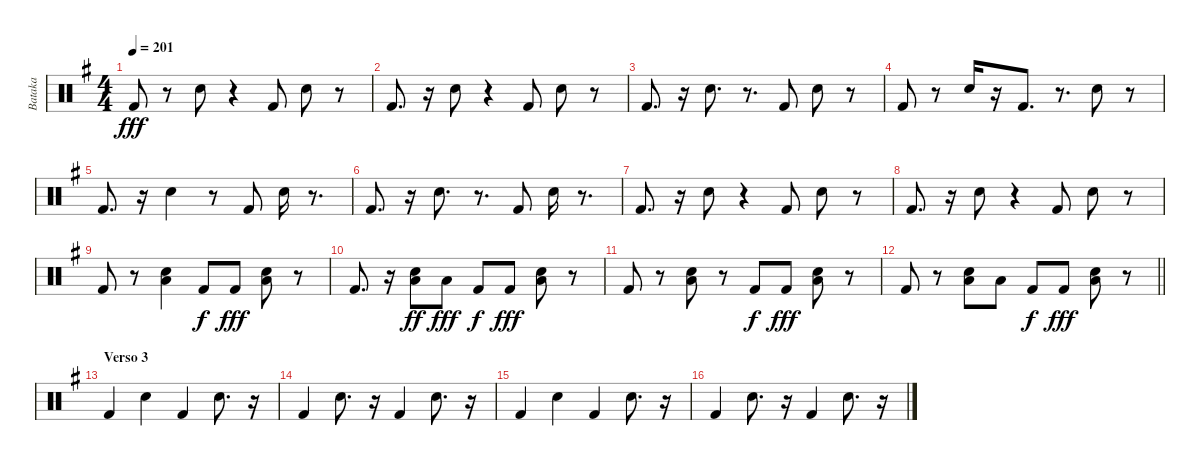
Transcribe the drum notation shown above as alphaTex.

\track ("Bataka" "Bataka") {instrument percussion}
\staff {score}
\articulation defaults
\ts (4 4)
\tempo 201
\clef neutral
\ks g "Kick (hit) 2".8{dy fff}
r.8 "Electric Snare (hit)".8 r.4 "Kick (hit) 2".8 "Electric Snare (hit)".8 r.8 |
"Kick (hit) 2".8{d} r.16 "Electric Snare (hit)".8 r.4 "Kick (hit) 2".8 "Electric Snare (hit)".8 r.8 |
"Kick (hit) 2".8{d} r.16 "Electric Snare (hit)".8{d} r.8{d} "Kick (hit) 2".8 "Electric Snare (hit)".8 r.8 |
"Kick (hit) 2".8 r.8 "Electric Snare (hit)".16 r.16 "Kick (hit) 2".8{d} r.8{d} "Electric Snare (hit)".8 r.8 |
"Kick (hit) 2".8{d} r.16 "Electric Snare (hit)".4 r.8 "Kick (hit) 2".8 "Electric Snare (hit)".16 r.8{d} |
"Kick (hit) 2".8{d} r.16 "Electric Snare (hit)".8{d} r.8{d} "Kick (hit) 2".8 "Electric Snare (hit)".16 r.8{d} |
"Kick (hit) 2".8{d} r.16 "Electric Snare (hit)".8 r.4 "Kick (hit) 2".8 "Electric Snare (hit)".8 r.8 |
"Kick (hit) 2".8{d} r.16 "Electric Snare (hit)".8 r.4 "Kick (hit) 2".8 "Electric Snare (hit)".8 r.8 |
"Kick (hit) 2".8 r.8 ("Electric Snare (hit)" "Low Floor Tom (hit)").4 "Kick (hit) 2".8{dy f} "Kick (hit) 2".8{dy fff} ("Electric Snare (hit)" "Low Floor Tom (hit)").8 r.8 |
"Kick (hit) 2".8{d} r.16 ("Electric Snare (hit)" "Low Floor Tom (hit)").8{dy ff} "Low Floor Tom (hit)".8{dy fff} "Kick (hit) 2".8{dy f} "Kick (hit) 2".8{dy fff} ("Electric Snare (hit)" "Low Floor Tom (hit)").8 r.8 |
"Kick (hit) 2".8 r.8 ("Low Floor Tom (hit)" "Electric Snare (hit)").8 r.8 "Kick (hit) 2".8{dy f} "Kick (hit) 2".8{dy fff} ("Electric Snare (hit)" "Low Floor Tom (hit)").8 r.8 |
\barLineRight lightlight "Kick (hit) 2".8
r.8 ("Electric Snare (hit)" "Low Floor Tom (hit)").8 "Low Floor Tom (hit)".8 "Kick (hit) 2".8{dy f} "Kick (hit) 2".8{dy fff} ("Low Floor Tom (hit)" "Electric Snare (hit)").8 r.8 |
\section ("" "Verso 3")
"Kick (hit) 2".4 "Electric Snare (hit)".4 "Kick (hit) 2".4 "Electric Snare (hit)".8{d} r.16 |
"Kick (hit) 2".4 "Electric Snare (hit)".8{d} r.16 "Kick (hit) 2".4 "Electric Snare (hit)".8{d} r.16 |
"Kick (hit) 2".4 "Electric Snare (hit)".4 "Kick (hit) 2".4 "Electric Snare (hit)".8{d} r.16 |
"Kick (hit) 2".4 "Electric Snare (hit)".8{d} r.16 "Kick (hit) 2".4 "Electric Snare (hit)".8{d} r.16
